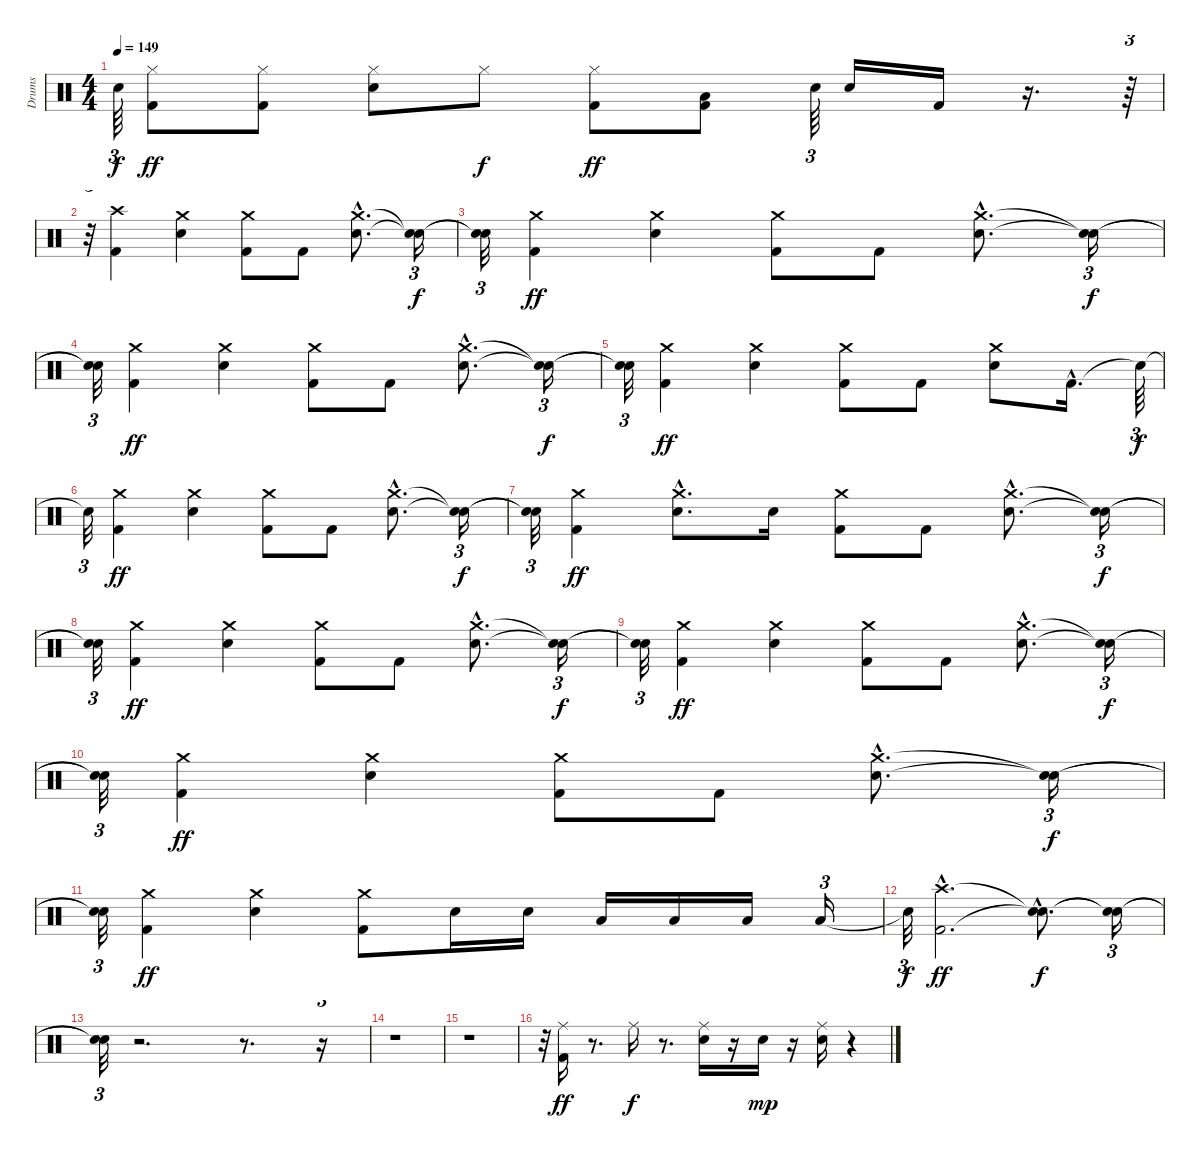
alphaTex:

\track ("Drums" "Drums") {instrument percussion}
\staff {score}
\articulation defaults
\ts (4 4)
\tempo 149
\clef neutral
\ks c "Snare (hit)"{t}.64{tu (3 2) dy f}
("Kick (hit) 2" "Hi-Hat (closed)").8{dy ff} ("Hi-Hat (closed)" "Kick (hit) 2").8 ("Hi-Hat (closed)" "Electric Snare (hit)").8 "Hi-Hat (closed)".8{dy f} ("Kick (hit) 2" "Hi-Hat (closed)").8{dy ff} ("Kick (hit) 2" "Low Tom (hit)").8 "Electric Snare (hit)".64{tu (3 2)} "Electric Snare (hit)".16 "Kick (hit) 2".16 r.16{d} r.64{tu (3 2)} |
r.32{tu (3 2)} ("Crash high (hit)" "Kick (hit) 2").4 ("Crash medium (hit)" "Electric Snare (hit)").4 ("Crash medium (hit)" "Kick (hit) 2").8 "Kick (hit) 2".8 ("Crash medium (hit)"{hac} "Electric Snare (hit)"{hac}).8{d} ("Snare (hit)"{t} "Snare (hit)"{t}).16{tu (3 2) dy f} |
("Snare (hit)"{t} "Snare (hit)"{t}).32{tu (3 2)} ("Kick (hit) 2" "Crash medium (hit)").4{dy ff} ("Crash medium (hit)" "Electric Snare (hit)").4 ("Crash medium (hit)" "Kick (hit) 2").8 "Kick (hit) 2".8 ("Crash medium (hit)"{hac} "Electric Snare (hit)"{hac}).8{d} ("Snare (hit)"{t} "Snare (hit)"{t}).16{tu (3 2) dy f} |
("Snare (hit)"{t} "Snare (hit)"{t}).32{tu (3 2)} ("Kick (hit) 2" "Crash medium (hit)").4{dy ff} ("Crash medium (hit)" "Electric Snare (hit)").4 ("Crash medium (hit)" "Kick (hit) 2").8 "Kick (hit) 2".8 ("Crash medium (hit)"{hac} "Electric Snare (hit)"{hac}).8{d} ("Snare (hit)"{t} "Snare (hit)"{t}).16{tu (3 2) dy f} |
("Snare (hit)"{t} "Snare (hit)"{t}).32{tu (3 2)} ("Kick (hit) 2" "Crash medium (hit)").4{dy ff} ("Crash medium (hit)" "Electric Snare (hit)").4 ("Crash medium (hit)" "Kick (hit) 2").8 "Kick (hit) 2".8 ("Crash medium (hit)" "Electric Snare (hit)").8 "Kick (hit) 2"{hac}.16{d} "Snare (hit)"{t}.64{tu (3 2) dy f} |
"Snare (hit)"{t}.32{tu (3 2)} ("Kick (hit) 2" "Crash medium (hit)").4{dy ff} ("Crash medium (hit)" "Electric Snare (hit)").4 ("Crash medium (hit)" "Kick (hit) 2").8 "Kick (hit) 2".8 ("Crash medium (hit)"{hac} "Electric Snare (hit)"{hac}).8{d} ("Snare (hit)"{t} "Snare (hit)"{t}).16{tu (3 2) dy f} |
("Snare (hit)"{t} "Snare (hit)"{t}).32{tu (3 2)} ("Kick (hit) 2" "Crash medium (hit)").4{dy ff} ("Crash medium (hit)" "Electric Snare (hit)"{hac}).8{d} "Electric Snare (hit)".16 ("Crash medium (hit)" "Kick (hit) 2").8 "Kick (hit) 2".8 ("Crash medium (hit)"{hac} "Electric Snare (hit)"{hac}).8{d} ("Snare (hit)"{t} "Snare (hit)"{t}).16{tu (3 2) dy f} |
("Snare (hit)"{t} "Snare (hit)"{t}).32{tu (3 2)} ("Kick (hit) 2" "Crash medium (hit)").4{dy ff} ("Crash medium (hit)" "Electric Snare (hit)").4 ("Crash medium (hit)" "Kick (hit) 2").8 "Kick (hit) 2".8 ("Crash medium (hit)"{hac} "Electric Snare (hit)"{hac}).8{d} ("Snare (hit)"{t} "Snare (hit)"{t}).16{tu (3 2) dy f} |
("Snare (hit)"{t} "Snare (hit)"{t}).32{tu (3 2)} ("Kick (hit) 2" "Crash medium (hit)").4{dy ff} ("Crash medium (hit)" "Electric Snare (hit)").4 ("Crash medium (hit)" "Kick (hit) 2").8 "Kick (hit) 2".8 ("Crash medium (hit)"{hac} "Electric Snare (hit)"{hac}).8{d} ("Snare (hit)"{t} "Snare (hit)"{t}).16{tu (3 2) dy f} |
("Snare (hit)"{t} "Snare (hit)"{t}).32{tu (3 2)} ("Kick (hit) 2" "Crash medium (hit)").4{dy ff} ("Crash medium (hit)" "Electric Snare (hit)").4 ("Crash medium (hit)" "Kick (hit) 2").8 "Kick (hit) 2".8 ("Crash medium (hit)"{hac} "Electric Snare (hit)"{hac}).8{d} ("Snare (hit)"{t} "Snare (hit)"{t}).16{tu (3 2) dy f} |
("Snare (hit)"{t} "Snare (hit)"{t}).32{tu (3 2)} ("Kick (hit) 2" "Crash medium (hit)").4{dy ff} ("Crash medium (hit)" "Electric Snare (hit)").4 ("Crash medium (hit)" "Kick (hit) 2").8 "Electric Snare (hit)".16 "Electric Snare (hit)".16 "Low Tom (hit)".16 "Low Tom (hit)".16 "Low Floor Tom (hit)".16 "Low Floor Tom (hit)".16{tu (3 2)} |
"Snare (hit)"{t}.32{tu (3 2) dy f} ("Crash high (hit)"{hac} "Kick (hit) 2"{hac}).2{d dy ff} ("Snare (hit)"{hac t} "Snare (hit)"{hac t}).8{d dy f} ("Snare (hit)"{t} "Snare (hit)"{t}).16{tu (3 2)} |
("Snare (hit)"{t} "Snare (hit)"{t}).32{tu (3 2)} r.2{d} r.8{d} r.16{tu (3 2)} |
r.1 |
r.1 |
r.32{tu (3 2)} ("Ride (middle)" "Kick (hit) 2").16{dy ff} r.8{d} "Ride (middle)".16{dy f} r.8{d} ("Snare (hit) 2" "Ride (middle)").16 r.16 "Snare (hit) 2".16{dy mp} r.16 ("Ride (middle)" "Snare (hit) 2").16 r.4{tu (3 2)}
